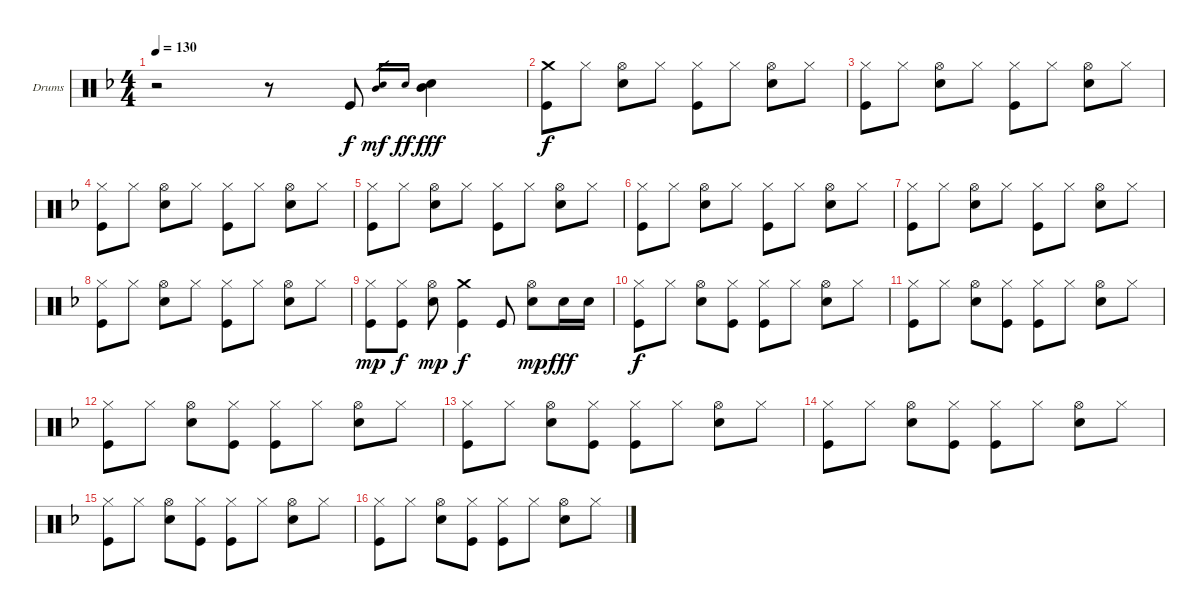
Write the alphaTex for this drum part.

\bracketExtendMode groupsimilarinstruments
\firstSystemTrackNameOrientation horizontal
\otherSystemsTrackNameOrientation horizontal
\track ("Александр Манякин" "Drums") {instrument percussion}
\staff {score}
\articulation defaults
\ts (4 4)
\tempo 130
\clef neutral
\ks f
r.2{dy f} r.8 "Kick (hit)".8 ("Snare (hit) 2" "Mid Tom (hit)").16{gr dy mf} "Snare (hit) 2".16{gr dy ff} ("Snare (hit) 2" "Mid Tom (hit)").4{dy fff} |
("Crash medium (hit)" "Kick (hit)").8{dy f} "Hi-Hat (closed)".8 ("Hi-Hat (open)" "Snare (hit) 2").8 "Hi-Hat (closed)".8 ("Hi-Hat (closed)" "Kick (hit)").8 "Hi-Hat (closed)".8 ("Hi-Hat (open)" "Snare (hit) 2").8 "Hi-Hat (closed)".8 |
("Hi-Hat (closed)" "Kick (hit)").8 "Hi-Hat (closed)".8 ("Hi-Hat (open)" "Snare (hit) 2").8 "Hi-Hat (closed)".8 ("Hi-Hat (closed)" "Kick (hit)").8 "Hi-Hat (closed)".8 ("Hi-Hat (open)" "Snare (hit) 2").8 "Hi-Hat (closed)".8 |
("Hi-Hat (closed)" "Kick (hit)").8 "Hi-Hat (closed)".8 ("Hi-Hat (open)" "Snare (hit) 2").8 "Hi-Hat (closed)".8 ("Hi-Hat (closed)" "Kick (hit)").8 "Hi-Hat (closed)".8 ("Hi-Hat (open)" "Snare (hit) 2").8 "Hi-Hat (closed)".8 |
("Hi-Hat (closed)" "Kick (hit)").8 "Hi-Hat (closed)".8 ("Hi-Hat (open)" "Snare (hit) 2").8 "Hi-Hat (closed)".8 ("Hi-Hat (closed)" "Kick (hit)").8 "Hi-Hat (closed)".8 ("Hi-Hat (open)" "Snare (hit) 2").8 "Hi-Hat (closed)".8 |
("Hi-Hat (closed)" "Kick (hit)").8 "Hi-Hat (closed)".8 ("Hi-Hat (open)" "Snare (hit) 2").8 "Hi-Hat (closed)".8 ("Hi-Hat (closed)" "Kick (hit)").8 "Hi-Hat (closed)".8 ("Hi-Hat (open)" "Snare (hit) 2").8 "Hi-Hat (closed)".8 |
("Hi-Hat (closed)" "Kick (hit)").8 "Hi-Hat (closed)".8 ("Hi-Hat (open)" "Snare (hit) 2").8 "Hi-Hat (closed)".8 ("Hi-Hat (closed)" "Kick (hit)").8 "Hi-Hat (closed)".8 ("Hi-Hat (open)" "Snare (hit) 2").8 "Hi-Hat (closed)".8 |
("Hi-Hat (closed)" "Kick (hit)").8 "Hi-Hat (closed)".8 ("Hi-Hat (open)" "Snare (hit) 2").8 "Hi-Hat (closed)".8 ("Hi-Hat (closed)" "Kick (hit)").8 "Hi-Hat (closed)".8 ("Hi-Hat (open)" "Snare (hit) 2").8 "Hi-Hat (closed)".8 |
("Hi-Hat (closed)" "Kick (hit)").8{dy mp} ("Hi-Hat (closed)" "Kick (hit)").8{dy f} ("Hi-Hat (open)" "Snare (hit) 2").8{dy mp} ("Crash medium (hit)" "Kick (hit)").4{dy f} "Kick (hit)".8 ("Hi-Hat (open)" "Snare (hit) 2").8{dy mp} "Snare (hit) 2".16{dy fff} "Snare (hit) 2".16 |
("Hi-Hat (closed)" "Kick (hit)").8{dy f} "Hi-Hat (closed)".8 ("Hi-Hat (open)" "Snare (hit) 2").8 ("Hi-Hat (closed)" "Kick (hit)").8 ("Hi-Hat (closed)" "Kick (hit)").8 "Hi-Hat (closed)".8 ("Hi-Hat (open)" "Snare (hit) 2").8 "Hi-Hat (closed)".8 |
("Hi-Hat (closed)" "Kick (hit)").8 "Hi-Hat (closed)".8 ("Hi-Hat (open)" "Snare (hit) 2").8 ("Hi-Hat (closed)" "Kick (hit)").8 ("Hi-Hat (closed)" "Kick (hit)").8 "Hi-Hat (closed)".8 ("Hi-Hat (open)" "Snare (hit) 2").8 "Hi-Hat (closed)".8 |
("Hi-Hat (closed)" "Kick (hit)").8 "Hi-Hat (closed)".8 ("Hi-Hat (open)" "Snare (hit) 2").8 ("Hi-Hat (closed)" "Kick (hit)").8 ("Hi-Hat (closed)" "Kick (hit)").8 "Hi-Hat (closed)".8 ("Hi-Hat (open)" "Snare (hit) 2").8 "Hi-Hat (closed)".8 |
("Hi-Hat (closed)" "Kick (hit)").8 "Hi-Hat (closed)".8 ("Hi-Hat (open)" "Snare (hit) 2").8 ("Hi-Hat (closed)" "Kick (hit)").8 ("Hi-Hat (closed)" "Kick (hit)").8 "Hi-Hat (closed)".8 ("Hi-Hat (open)" "Snare (hit) 2").8 "Hi-Hat (closed)".8 |
("Hi-Hat (closed)" "Kick (hit)").8 "Hi-Hat (closed)".8 ("Hi-Hat (open)" "Snare (hit) 2").8 ("Hi-Hat (closed)" "Kick (hit)").8 ("Hi-Hat (closed)" "Kick (hit)").8 "Hi-Hat (closed)".8 ("Hi-Hat (open)" "Snare (hit) 2").8 "Hi-Hat (closed)".8 |
("Hi-Hat (closed)" "Kick (hit)").8 "Hi-Hat (closed)".8 ("Hi-Hat (open)" "Snare (hit) 2").8 ("Hi-Hat (closed)" "Kick (hit)").8 ("Hi-Hat (closed)" "Kick (hit)").8 "Hi-Hat (closed)".8 ("Hi-Hat (open)" "Snare (hit) 2").8 "Hi-Hat (closed)".8 |
("Hi-Hat (closed)" "Kick (hit)").8 "Hi-Hat (closed)".8 ("Hi-Hat (open)" "Snare (hit) 2").8 ("Hi-Hat (closed)" "Kick (hit)").8 ("Hi-Hat (closed)" "Kick (hit)").8 "Hi-Hat (closed)".8 ("Hi-Hat (open)" "Snare (hit) 2").8 "Hi-Hat (closed)".8
